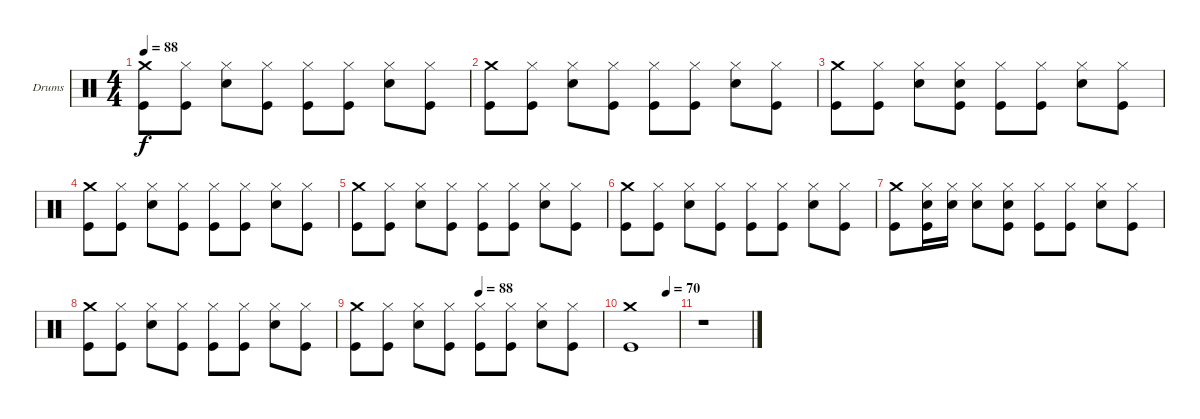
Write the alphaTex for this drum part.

\bracketExtendMode groupsimilarinstruments
\firstSystemTrackNameOrientation horizontal
\otherSystemsTrackNameOrientation horizontal
\track ("Drumkit" "Drums") {instrument percussion}
\staff {score}
\articulation defaults
\ts (4 4)
\tempo 88
\clef neutral
\ks c
("Kick (hit)" "Crash medium (hit)").8{dy f} ("Kick (hit)" "Hi-Hat (closed)").8 ("Snare (hit) 2" "Hi-Hat (closed)").8 ("Kick (hit)" "Hi-Hat (closed)").8 ("Kick (hit)" "Hi-Hat (closed)").8 ("Kick (hit)" "Hi-Hat (closed)").8 ("Snare (hit) 2" "Hi-Hat (closed)").8 ("Kick (hit)" "Hi-Hat (closed)").8 |
("Kick (hit)" "Crash medium (hit)").8 ("Kick (hit)" "Hi-Hat (closed)").8 ("Snare (hit) 2" "Hi-Hat (closed)").8 ("Kick (hit)" "Hi-Hat (closed)").8 ("Kick (hit)" "Hi-Hat (closed)").8 ("Kick (hit)" "Hi-Hat (closed)").8 ("Snare (hit) 2" "Hi-Hat (closed)").8 ("Kick (hit)" "Hi-Hat (closed)").8 |
("Kick (hit)" "Crash medium (hit)").8 ("Kick (hit)" "Hi-Hat (closed)").8 ("Snare (hit) 2" "Hi-Hat (closed)").8 ("Snare (hit) 2" "Kick (hit)" "Hi-Hat (closed)").8 ("Kick (hit)" "Hi-Hat (closed)").8 ("Kick (hit)" "Hi-Hat (closed)").8 ("Snare (hit) 2" "Hi-Hat (closed)").8 ("Kick (hit)" "Hi-Hat (closed)").8 |
("Kick (hit)" "Crash medium (hit)").8 ("Kick (hit)" "Hi-Hat (closed)").8 ("Snare (hit) 2" "Hi-Hat (closed)").8 ("Kick (hit)" "Hi-Hat (closed)").8 ("Kick (hit)" "Hi-Hat (closed)").8 ("Kick (hit)" "Hi-Hat (closed)").8 ("Snare (hit) 2" "Hi-Hat (closed)").8 ("Kick (hit)" "Hi-Hat (closed)").8 |
("Kick (hit)" "Crash medium (hit)").8 ("Kick (hit)" "Hi-Hat (closed)").8 ("Snare (hit) 2" "Hi-Hat (closed)").8 ("Kick (hit)" "Hi-Hat (closed)").8 ("Kick (hit)" "Hi-Hat (closed)").8 ("Kick (hit)" "Hi-Hat (closed)").8 ("Snare (hit) 2" "Hi-Hat (closed)").8 ("Kick (hit)" "Hi-Hat (closed)").8 |
("Kick (hit)" "Crash medium (hit)").8 ("Kick (hit)" "Hi-Hat (closed)").8 ("Snare (hit) 2" "Hi-Hat (closed)").8 ("Kick (hit)" "Hi-Hat (closed)").8 ("Kick (hit)" "Hi-Hat (closed)").8 ("Kick (hit)" "Hi-Hat (closed)").8 ("Snare (hit) 2" "Hi-Hat (closed)").8 ("Kick (hit)" "Hi-Hat (closed)").8 |
("Kick (hit)" "Crash medium (hit)").8 ("Hi-Hat (closed)" "Snare (hit) 2" "Kick (hit)").16 ("Hi-Hat (closed)" "Snare (hit) 2").16 ("Hi-Hat (closed)" "Snare (hit) 2").8 ("Snare (hit) 2" "Hi-Hat (closed)" "Kick (hit)").8 ("Kick (hit)" "Hi-Hat (closed)").8 ("Kick (hit)" "Hi-Hat (closed)").8 ("Snare (hit) 2" "Hi-Hat (closed)").8 ("Kick (hit)" "Hi-Hat (closed)").8 |
("Kick (hit)" "Crash medium (hit)").8 ("Kick (hit)" "Hi-Hat (closed)").8 ("Snare (hit) 2" "Hi-Hat (closed)").8 ("Kick (hit)" "Hi-Hat (closed)").8 ("Kick (hit)" "Hi-Hat (closed)").8 ("Kick (hit)" "Hi-Hat (closed)").8 ("Snare (hit) 2" "Hi-Hat (closed)").8 ("Kick (hit)" "Hi-Hat (closed)").8 |
\tempo (88 0.5)
("Kick (hit)" "Crash medium (hit)").8 ("Kick (hit)" "Hi-Hat (closed)").8 ("Snare (hit) 2" "Hi-Hat (closed)").8 ("Kick (hit)" "Hi-Hat (closed)").8 ("Kick (hit)" "Hi-Hat (closed)").8 ("Kick (hit)" "Hi-Hat (closed)").8 ("Snare (hit) 2" "Hi-Hat (closed)").8 ("Kick (hit)" "Hi-Hat (closed)").8 |
\tempo (70 0.75)
("Kick (hit)" "Crash medium (hit)").1 |
r.1
